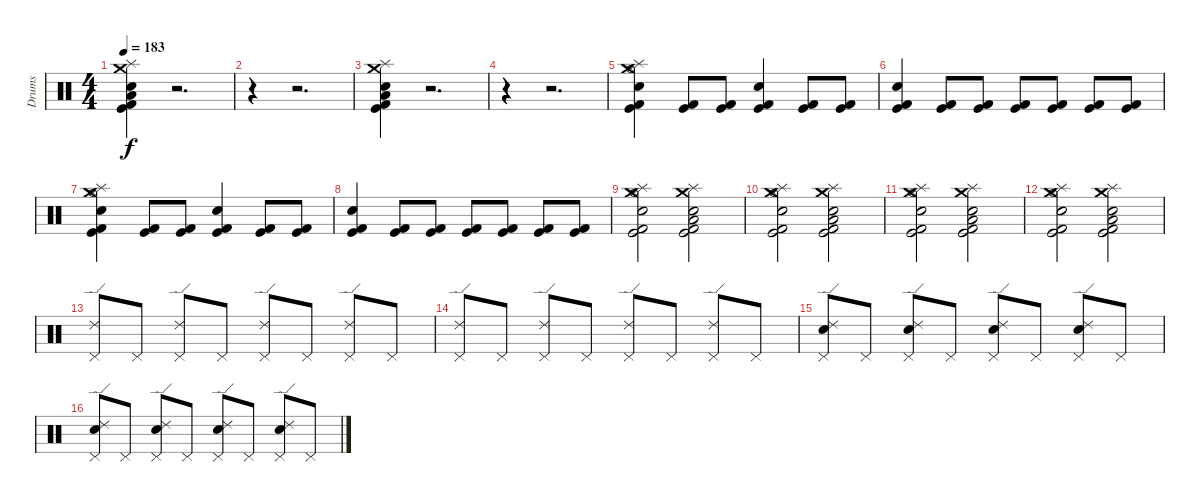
\track ("Drums" "Drums") {instrument percussion}
\staff {score}
\articulation defaults
\ts (4 4)
\tempo 183
\clef neutral
\ks c
("Crash medium (hit)" "Kick (hit) 2" "Kick (hit)" "Electric Snare (hit)" "Low Tom (hit)" "Splash (hit)").4{dy f} r.2{d} |
r.4 r.2{d} |
("Crash medium (hit)" "Kick (hit) 2" "Kick (hit)" "Electric Snare (hit)" "Low Tom (hit)" "Splash (hit)").4 r.2{d} |
r.4 r.2{d} |
("Hi-Hat (open)" "Crash medium (hit)" "Splash (hit)" "Kick (hit)" "Kick (hit) 2" "Electric Snare (hit)").4 ("Kick (hit) 2" "Kick (hit)").8 ("Kick (hit) 2" "Kick (hit)").8 ("Kick (hit) 2" "Kick (hit)" "Electric Snare (hit)").4 ("Kick (hit) 2" "Kick (hit)").8 ("Kick (hit) 2" "Kick (hit)").8 |
("Kick (hit) 2" "Kick (hit)" "Electric Snare (hit)").4 ("Kick (hit) 2" "Kick (hit)").8 ("Kick (hit) 2" "Kick (hit)").8 ("Kick (hit) 2" "Kick (hit)").8 ("Kick (hit) 2" "Kick (hit)").8 ("Kick (hit) 2" "Kick (hit)").8 ("Kick (hit) 2" "Kick (hit)").8 |
("Hi-Hat (open)" "Crash medium (hit)" "Splash (hit)" "Kick (hit)" "Kick (hit) 2" "Electric Snare (hit)").4 ("Kick (hit) 2" "Kick (hit)").8 ("Kick (hit) 2" "Kick (hit)").8 ("Kick (hit) 2" "Kick (hit)" "Electric Snare (hit)").4 ("Kick (hit) 2" "Kick (hit)").8 ("Kick (hit) 2" "Kick (hit)").8 |
("Kick (hit) 2" "Kick (hit)" "Electric Snare (hit)").4 ("Kick (hit) 2" "Kick (hit)").8 ("Kick (hit) 2" "Kick (hit)").8 ("Kick (hit) 2" "Kick (hit)").8 ("Kick (hit) 2" "Kick (hit)").8 ("Kick (hit) 2" "Kick (hit)").8 ("Kick (hit) 2" "Kick (hit)").8 |
("Hi-Hat (open)" "Crash medium (hit)" "Splash (hit)" "Kick (hit)" "Kick (hit) 2" "Electric Snare (hit)").2 ("Splash (hit)" "Crash medium (hit)" "Kick (hit) 2" "Kick (hit)" "Low Tom (hit)" "Electric Snare (hit)").2 |
("Hi-Hat (open)" "Crash medium (hit)" "Splash (hit)" "Kick (hit)" "Kick (hit) 2" "Electric Snare (hit)").2 ("Splash (hit)" "Crash medium (hit)" "Kick (hit) 2" "Kick (hit)" "Low Tom (hit)" "Electric Snare (hit)").2 |
("Hi-Hat (open)" "Crash medium (hit)" "Splash (hit)" "Kick (hit)" "Kick (hit) 2" "Electric Snare (hit)").2 ("Splash (hit)" "Crash medium (hit)" "Kick (hit) 2" "Kick (hit)" "Low Tom (hit)" "Electric Snare (hit)").2 |
("Hi-Hat (open)" "Crash medium (hit)" "Splash (hit)" "Kick (hit)" "Kick (hit) 2" "Electric Snare (hit)").2 ("Splash (hit)" "Crash medium (hit)" "Kick (hit) 2" "Kick (hit)" "Low Tom (hit)" "Electric Snare (hit)").2 |
("Pedal Hi-Hat (hit)" "Ride (edge) 2").8 "Pedal Hi-Hat (hit)".8 ("Pedal Hi-Hat (hit)" "Ride (edge) 2").8 "Pedal Hi-Hat (hit)".8 ("Pedal Hi-Hat (hit)" "Ride (edge) 2").8 "Pedal Hi-Hat (hit)".8 ("Pedal Hi-Hat (hit)" "Ride (edge) 2").8 "Pedal Hi-Hat (hit)".8 |
("Pedal Hi-Hat (hit)" "Ride (edge) 2").8 "Pedal Hi-Hat (hit)".8 ("Pedal Hi-Hat (hit)" "Ride (edge) 2").8 "Pedal Hi-Hat (hit)".8 ("Pedal Hi-Hat (hit)" "Ride (edge) 2").8 "Pedal Hi-Hat (hit)".8 ("Pedal Hi-Hat (hit)" "Ride (edge) 2").8 "Pedal Hi-Hat (hit)".8 |
("Pedal Hi-Hat (hit)" "Ride (edge) 2" "Electric Snare (hit)").8 "Pedal Hi-Hat (hit)".8 ("Pedal Hi-Hat (hit)" "Ride (edge) 2" "Electric Snare (hit)").8 "Pedal Hi-Hat (hit)".8 ("Pedal Hi-Hat (hit)" "Ride (edge) 2" "Electric Snare (hit)").8 "Pedal Hi-Hat (hit)".8 ("Pedal Hi-Hat (hit)" "Ride (edge) 2" "Electric Snare (hit)").8 "Pedal Hi-Hat (hit)".8 |
("Pedal Hi-Hat (hit)" "Ride (edge) 2" "Electric Snare (hit)").8 "Pedal Hi-Hat (hit)".8 ("Pedal Hi-Hat (hit)" "Ride (edge) 2" "Electric Snare (hit)").8 "Pedal Hi-Hat (hit)".8 ("Pedal Hi-Hat (hit)" "Ride (edge) 2" "Electric Snare (hit)").8 "Pedal Hi-Hat (hit)".8 ("Pedal Hi-Hat (hit)" "Ride (edge) 2" "Electric Snare (hit)").8 "Pedal Hi-Hat (hit)".8
